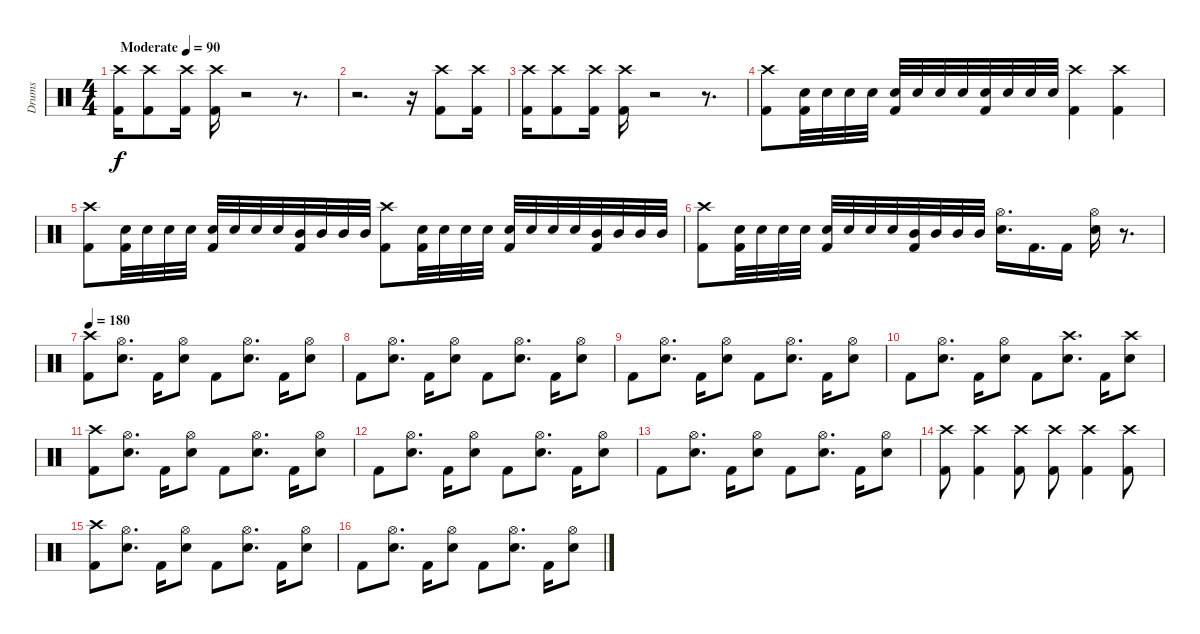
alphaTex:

\track ("Drums" "Drums") {instrument percussion}
\staff {score}
\articulation defaults
\ts (4 4)
\tempo (90 "Moderate")
\clef neutral
\ks c
("Crash high (hit)" "Kick (hit) 2").16{dy f} ("Crash high (hit)" "Kick (hit) 2").8 ("Crash high (hit)" "Kick (hit) 2").16 ("Crash high (hit)" "Kick (hit) 2").16 r.2{volume 0} r.8{d} |
r.2{d} r.16 ("Crash high (hit)" "Kick (hit) 2").8{volume 16} ("Crash high (hit)" "Kick (hit) 2").16 |
("Crash high (hit)" "Kick (hit) 2").16 ("Crash high (hit)" "Kick (hit) 2").8 ("Crash high (hit)" "Kick (hit) 2").16 ("Crash high (hit)" "Kick (hit) 2").16 r.2{volume 0} r.8{d} |
("Crash high (hit)" "Kick (hit) 2").8{volume 16} ("Electric Snare (hit)" "Kick (hit) 2").32 "Electric Snare (hit)".32 "Electric Snare (hit)".32 "Electric Snare (hit)".32 ("Electric Snare (hit)" "Kick (hit) 2").32 "Electric Snare (hit)".32 "Electric Snare (hit)".32 "Electric Snare (hit)".32 ("Electric Snare (hit)" "Kick (hit) 2").32 "Electric Snare (hit)".32 "Electric Snare (hit)".32 "Electric Snare (hit)".32 ("Crash high (hit)" "Kick (hit) 2").4 ("Crash high (hit)" "Kick (hit) 2").4 |
("Crash high (hit)" "Kick (hit) 2").8 ("Electric Snare (hit)" "Kick (hit) 2").32 "Electric Snare (hit)".32 "Electric Snare (hit)".32 "Electric Snare (hit)".32 ("Electric Snare (hit)" "Kick (hit) 2").32 "Electric Snare (hit)".32 "Electric Snare (hit)".32 "Electric Snare (hit)".32 ("Mid Tom (hit)" "Kick (hit) 2").32 "Mid Tom (hit)".32 "Mid Tom (hit)".32 "Mid Tom (hit)".32 ("Crash high (hit)" "Kick (hit) 2").8 ("Electric Snare (hit)" "Kick (hit) 2").32 "Electric Snare (hit)".32 "Electric Snare (hit)".32 "Electric Snare (hit)".32 ("Electric Snare (hit)" "Kick (hit) 2").32 "Electric Snare (hit)".32 "Electric Snare (hit)".32 "Electric Snare (hit)".32 ("Mid Tom (hit)" "Kick (hit) 2").32 "Mid Tom (hit)".32 "Mid Tom (hit)".32 "Mid Tom (hit)".32 |
("Crash high (hit)" "Kick (hit) 2").8 ("Electric Snare (hit)" "Kick (hit) 2").32 "Electric Snare (hit)".32 "Electric Snare (hit)".32 "Electric Snare (hit)".32 ("Electric Snare (hit)" "Kick (hit) 2").32 "Electric Snare (hit)".32 "Electric Snare (hit)".32 "Electric Snare (hit)".32 ("Mid Tom (hit)" "Kick (hit) 2").32 "Mid Tom (hit)".32 "Mid Tom (hit)".32 "Mid Tom (hit)".32 ("Hi-Hat (open)" "Electric Snare (hit)").16{d} "Kick (hit) 2".16{d} "Kick (hit) 2".16 ("Hi-Hat (open)" "Electric Snare (hit)").16 r.8{d volume 0} |
\tempo 180
("Crash high (hit)" "Kick (hit) 2").8{volume 16} ("Hi-Hat (open)" "Electric Snare (hit)").8{d} "Kick (hit) 2".16 ("Hi-Hat (open)" "Electric Snare (hit)").8 "Kick (hit) 2".8 ("Hi-Hat (open)" "Electric Snare (hit)").8{d} "Kick (hit) 2".16 ("Hi-Hat (open)" "Electric Snare (hit)").8 |
"Kick (hit) 2".8 ("Hi-Hat (open)" "Electric Snare (hit)").8{d} "Kick (hit) 2".16 ("Hi-Hat (open)" "Electric Snare (hit)").8 "Kick (hit) 2".8 ("Hi-Hat (open)" "Electric Snare (hit)").8{d} "Kick (hit) 2".16 ("Hi-Hat (open)" "Electric Snare (hit)").8 |
"Kick (hit) 2".8 ("Hi-Hat (open)" "Electric Snare (hit)").8{d} "Kick (hit) 2".16 ("Hi-Hat (open)" "Electric Snare (hit)").8 "Kick (hit) 2".8 ("Hi-Hat (open)" "Electric Snare (hit)").8{d} "Kick (hit) 2".16 ("Hi-Hat (open)" "Electric Snare (hit)").8 |
"Kick (hit) 2".8 ("Hi-Hat (open)" "Electric Snare (hit)").8{d} "Kick (hit) 2".16 ("Hi-Hat (open)" "Electric Snare (hit)").8 "Kick (hit) 2".8 ("Crash high (hit)" "Electric Snare (hit)").8{d} "Kick (hit) 2".16 ("Crash high (hit)" "Electric Snare (hit)").8 |
("Crash high (hit)" "Kick (hit) 2").8 ("Hi-Hat (open)" "Electric Snare (hit)").8{d} "Kick (hit) 2".16 ("Hi-Hat (open)" "Electric Snare (hit)").8 "Kick (hit) 2".8 ("Hi-Hat (open)" "Electric Snare (hit)").8{d} "Kick (hit) 2".16 ("Hi-Hat (open)" "Electric Snare (hit)").8 |
"Kick (hit) 2".8 ("Hi-Hat (open)" "Electric Snare (hit)").8{d} "Kick (hit) 2".16 ("Hi-Hat (open)" "Electric Snare (hit)").8 "Kick (hit) 2".8 ("Hi-Hat (open)" "Electric Snare (hit)").8{d} "Kick (hit) 2".16 ("Hi-Hat (open)" "Electric Snare (hit)").8 |
"Kick (hit) 2".8 ("Hi-Hat (open)" "Electric Snare (hit)").8{d} "Kick (hit) 2".16 ("Hi-Hat (open)" "Electric Snare (hit)").8 "Kick (hit) 2".8 ("Hi-Hat (open)" "Electric Snare (hit)").8{d} "Kick (hit) 2".16 ("Hi-Hat (open)" "Electric Snare (hit)").8 |
("Crash high (hit)" "Kick (hit) 2").8 ("Crash high (hit)" "Kick (hit) 2").4 ("Crash high (hit)" "Kick (hit) 2").8 ("Crash high (hit)" "Kick (hit) 2").8 ("Crash high (hit)" "Kick (hit) 2").4 ("Crash high (hit)" "Kick (hit) 2").8 |
("Crash high (hit)" "Kick (hit) 2").8 ("Hi-Hat (open)" "Electric Snare (hit)").8{d} "Kick (hit) 2".16 ("Hi-Hat (open)" "Electric Snare (hit)").8 "Kick (hit) 2".8 ("Hi-Hat (open)" "Electric Snare (hit)").8{d} "Kick (hit) 2".16 ("Hi-Hat (open)" "Electric Snare (hit)").8 |
"Kick (hit) 2".8 ("Hi-Hat (open)" "Electric Snare (hit)").8{d} "Kick (hit) 2".16 ("Hi-Hat (open)" "Electric Snare (hit)").8 "Kick (hit) 2".8 ("Hi-Hat (open)" "Electric Snare (hit)").8{d} "Kick (hit) 2".16 ("Hi-Hat (open)" "Electric Snare (hit)").8
